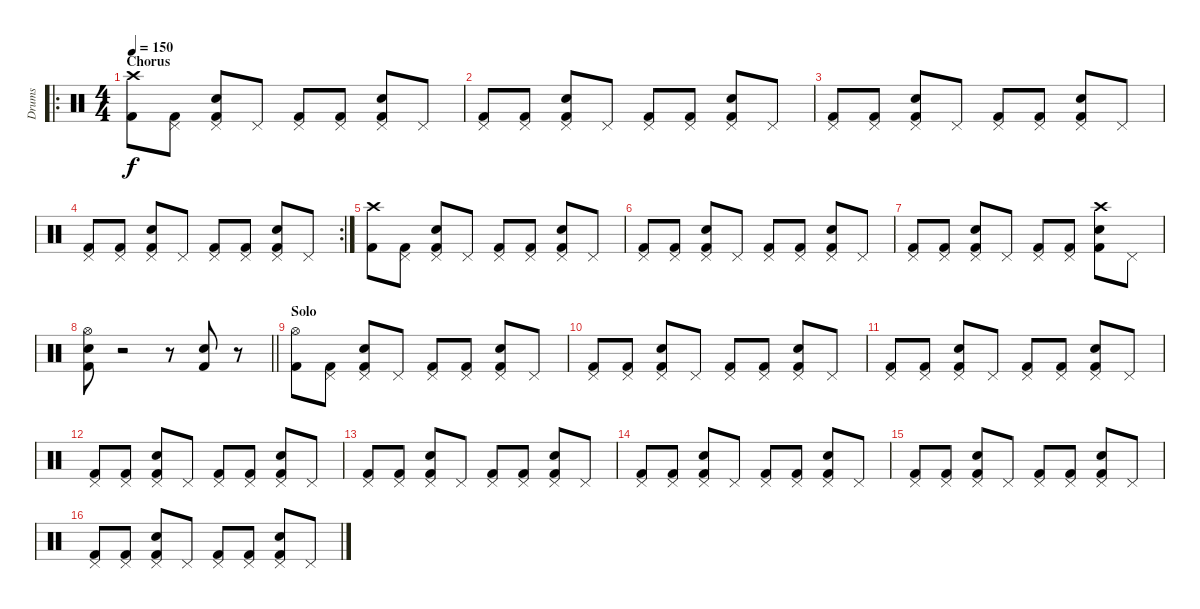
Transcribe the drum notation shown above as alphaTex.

\track ("Drums" "Drums") {instrument percussion}
\staff {score}
\articulation defaults
\ro
\ts (4 4)
\section ("" "Chorus")
\tempo 150
\clef neutral
\ks c
("Crash high (hit)" "Kick (hit) 2").8{dy f} ("Pedal Hi-Hat (hit)" "Kick (hit) 2").8 ("Pedal Hi-Hat (hit)" "Snare (hit) 2" "Kick (hit) 2").8 "Pedal Hi-Hat (hit)".8 ("Pedal Hi-Hat (hit)" "Kick (hit) 2").8 ("Pedal Hi-Hat (hit)" "Kick (hit) 2").8 ("Pedal Hi-Hat (hit)" "Snare (hit) 2" "Kick (hit) 2").8 "Pedal Hi-Hat (hit)".8 |
("Pedal Hi-Hat (hit)" "Kick (hit) 2").8 ("Pedal Hi-Hat (hit)" "Kick (hit) 2").8 ("Pedal Hi-Hat (hit)" "Snare (hit) 2" "Kick (hit) 2").8 "Pedal Hi-Hat (hit)".8 ("Pedal Hi-Hat (hit)" "Kick (hit) 2").8 ("Pedal Hi-Hat (hit)" "Kick (hit) 2").8 ("Pedal Hi-Hat (hit)" "Snare (hit) 2" "Kick (hit) 2").8 "Pedal Hi-Hat (hit)".8 |
("Pedal Hi-Hat (hit)" "Kick (hit) 2").8 ("Pedal Hi-Hat (hit)" "Kick (hit) 2").8 ("Pedal Hi-Hat (hit)" "Snare (hit) 2" "Kick (hit) 2").8 "Pedal Hi-Hat (hit)".8 ("Pedal Hi-Hat (hit)" "Kick (hit) 2").8 ("Pedal Hi-Hat (hit)" "Kick (hit) 2").8 ("Pedal Hi-Hat (hit)" "Snare (hit) 2" "Kick (hit) 2").8 "Pedal Hi-Hat (hit)".8 |
\rc 2
("Pedal Hi-Hat (hit)" "Kick (hit) 2").8 ("Pedal Hi-Hat (hit)" "Kick (hit) 2").8 ("Pedal Hi-Hat (hit)" "Snare (hit) 2" "Kick (hit) 2").8 "Pedal Hi-Hat (hit)".8 ("Pedal Hi-Hat (hit)" "Kick (hit) 2").8 ("Pedal Hi-Hat (hit)" "Kick (hit) 2").8 ("Pedal Hi-Hat (hit)" "Snare (hit) 2" "Kick (hit) 2").8 "Pedal Hi-Hat (hit)".8 |
("Crash high (hit)" "Kick (hit) 2").8 ("Pedal Hi-Hat (hit)" "Kick (hit) 2").8 ("Pedal Hi-Hat (hit)" "Snare (hit) 2" "Kick (hit) 2").8 "Pedal Hi-Hat (hit)".8 ("Pedal Hi-Hat (hit)" "Kick (hit) 2").8 ("Pedal Hi-Hat (hit)" "Kick (hit) 2").8 ("Pedal Hi-Hat (hit)" "Snare (hit) 2" "Kick (hit) 2").8 "Pedal Hi-Hat (hit)".8 |
("Pedal Hi-Hat (hit)" "Kick (hit) 2").8 ("Pedal Hi-Hat (hit)" "Kick (hit) 2").8 ("Pedal Hi-Hat (hit)" "Snare (hit) 2" "Kick (hit) 2").8 "Pedal Hi-Hat (hit)".8 ("Pedal Hi-Hat (hit)" "Kick (hit) 2").8 ("Pedal Hi-Hat (hit)" "Kick (hit) 2").8 ("Pedal Hi-Hat (hit)" "Snare (hit) 2" "Kick (hit) 2").8 "Pedal Hi-Hat (hit)".8 |
("Pedal Hi-Hat (hit)" "Kick (hit) 2").8 ("Pedal Hi-Hat (hit)" "Kick (hit) 2").8 ("Pedal Hi-Hat (hit)" "Snare (hit) 2" "Kick (hit) 2").8 "Pedal Hi-Hat (hit)".8 ("Pedal Hi-Hat (hit)" "Kick (hit) 2").8 ("Pedal Hi-Hat (hit)" "Kick (hit) 2").8 ("Crash high (hit)" "Snare (hit) 2" "Kick (hit) 2").8 "Pedal Hi-Hat (hit)".8 |
\barLineRight lightlight
("Hi-Hat (open)" "Snare (hit) 2" "Kick (hit) 2").8 r.2 r.8 ("Snare (hit) 2" "Kick (hit) 2").8 r.8 |
\section ("" "Solo")
("Hi-Hat (open)" "Kick (hit) 2").8 ("Pedal Hi-Hat (hit)" "Kick (hit) 2").8 ("Pedal Hi-Hat (hit)" "Snare (hit) 2" "Kick (hit) 2").8 "Pedal Hi-Hat (hit)".8 ("Pedal Hi-Hat (hit)" "Kick (hit) 2").8 ("Pedal Hi-Hat (hit)" "Kick (hit) 2").8 ("Pedal Hi-Hat (hit)" "Snare (hit) 2" "Kick (hit) 2").8 "Pedal Hi-Hat (hit)".8 |
("Pedal Hi-Hat (hit)" "Kick (hit) 2").8 ("Pedal Hi-Hat (hit)" "Kick (hit) 2").8 ("Pedal Hi-Hat (hit)" "Snare (hit) 2" "Kick (hit) 2").8 "Pedal Hi-Hat (hit)".8 ("Pedal Hi-Hat (hit)" "Kick (hit) 2").8 ("Pedal Hi-Hat (hit)" "Kick (hit) 2").8 ("Pedal Hi-Hat (hit)" "Snare (hit) 2" "Kick (hit) 2").8 "Pedal Hi-Hat (hit)".8 |
("Pedal Hi-Hat (hit)" "Kick (hit) 2").8 ("Pedal Hi-Hat (hit)" "Kick (hit) 2").8 ("Pedal Hi-Hat (hit)" "Snare (hit) 2" "Kick (hit) 2").8 "Pedal Hi-Hat (hit)".8 ("Pedal Hi-Hat (hit)" "Kick (hit) 2").8 ("Pedal Hi-Hat (hit)" "Kick (hit) 2").8 ("Pedal Hi-Hat (hit)" "Snare (hit) 2" "Kick (hit) 2").8 "Pedal Hi-Hat (hit)".8 |
("Pedal Hi-Hat (hit)" "Kick (hit) 2").8 ("Pedal Hi-Hat (hit)" "Kick (hit) 2").8 ("Pedal Hi-Hat (hit)" "Snare (hit) 2" "Kick (hit) 2").8 "Pedal Hi-Hat (hit)".8 ("Pedal Hi-Hat (hit)" "Kick (hit) 2").8 ("Pedal Hi-Hat (hit)" "Kick (hit) 2").8 ("Pedal Hi-Hat (hit)" "Snare (hit) 2" "Kick (hit) 2").8 "Pedal Hi-Hat (hit)".8 |
("Pedal Hi-Hat (hit)" "Kick (hit) 2").8 ("Pedal Hi-Hat (hit)" "Kick (hit) 2").8 ("Pedal Hi-Hat (hit)" "Snare (hit) 2" "Kick (hit) 2").8 "Pedal Hi-Hat (hit)".8 ("Pedal Hi-Hat (hit)" "Kick (hit) 2").8 ("Pedal Hi-Hat (hit)" "Kick (hit) 2").8 ("Pedal Hi-Hat (hit)" "Snare (hit) 2" "Kick (hit) 2").8 "Pedal Hi-Hat (hit)".8 |
("Pedal Hi-Hat (hit)" "Kick (hit) 2").8 ("Pedal Hi-Hat (hit)" "Kick (hit) 2").8 ("Pedal Hi-Hat (hit)" "Snare (hit) 2" "Kick (hit) 2").8 "Pedal Hi-Hat (hit)".8 ("Pedal Hi-Hat (hit)" "Kick (hit) 2").8 ("Pedal Hi-Hat (hit)" "Kick (hit) 2").8 ("Pedal Hi-Hat (hit)" "Snare (hit) 2" "Kick (hit) 2").8 "Pedal Hi-Hat (hit)".8 |
("Pedal Hi-Hat (hit)" "Kick (hit) 2").8 ("Pedal Hi-Hat (hit)" "Kick (hit) 2").8 ("Pedal Hi-Hat (hit)" "Snare (hit) 2" "Kick (hit) 2").8 "Pedal Hi-Hat (hit)".8 ("Pedal Hi-Hat (hit)" "Kick (hit) 2").8 ("Pedal Hi-Hat (hit)" "Kick (hit) 2").8 ("Pedal Hi-Hat (hit)" "Snare (hit) 2" "Kick (hit) 2").8 "Pedal Hi-Hat (hit)".8 |
("Pedal Hi-Hat (hit)" "Kick (hit) 2").8 ("Pedal Hi-Hat (hit)" "Kick (hit) 2").8 ("Pedal Hi-Hat (hit)" "Snare (hit) 2" "Kick (hit) 2").8 "Pedal Hi-Hat (hit)".8 ("Pedal Hi-Hat (hit)" "Kick (hit) 2").8 ("Pedal Hi-Hat (hit)" "Kick (hit) 2").8 ("Pedal Hi-Hat (hit)" "Snare (hit) 2" "Kick (hit) 2").8 "Pedal Hi-Hat (hit)".8
